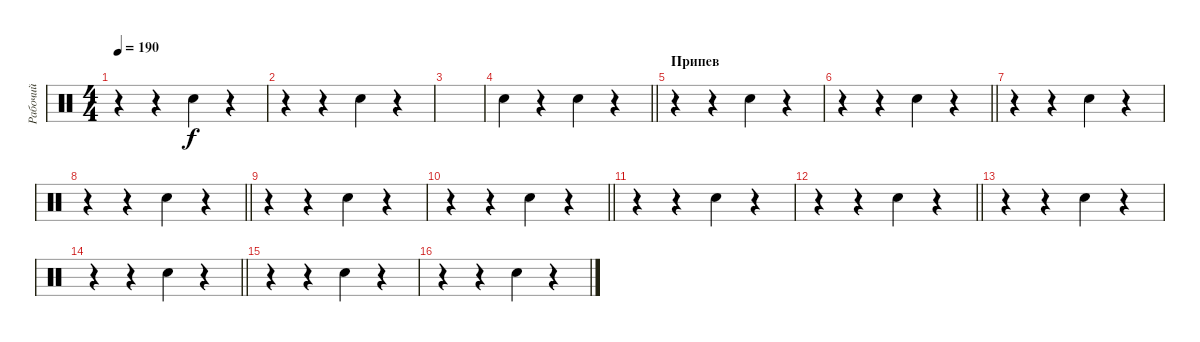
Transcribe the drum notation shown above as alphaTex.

\track ("Рабочий" "Рабочий") {instrument percussion}
\staff {score}
\articulation defaults
\ts (4 4)
\tempo 190
\clef neutral
\ks c
r.4{dy f} r.4 "Snare (hit) 2".4 r.4 |
r.4 r.4 "Snare (hit) 2".4 r.4 |
|
\barLineRight lightlight "Snare (hit) 2".4
r.4 "Snare (hit) 2".4 r.4 |
\section ("" "Припев")
r.4 r.4 "Snare (hit) 2".4 r.4 |
\barLineRight lightlight
r.4 r.4 "Snare (hit) 2".4 r.4 |
r.4 r.4 "Snare (hit) 2".4 r.4 |
\barLineRight lightlight
r.4 r.4 "Snare (hit) 2".4 r.4 |
r.4 r.4 "Snare (hit) 2".4 r.4 |
\barLineRight lightlight
r.4 r.4 "Snare (hit) 2".4 r.4 |
r.4 r.4 "Snare (hit) 2".4 r.4 |
\barLineRight lightlight
r.4 r.4 "Snare (hit) 2".4 r.4 |
r.4 r.4 "Snare (hit) 2".4 r.4 |
\barLineRight lightlight
r.4 r.4 "Snare (hit) 2".4 r.4 |
r.4 r.4 "Snare (hit) 2".4 r.4 |
r.4 r.4 "Snare (hit) 2".4 r.4
